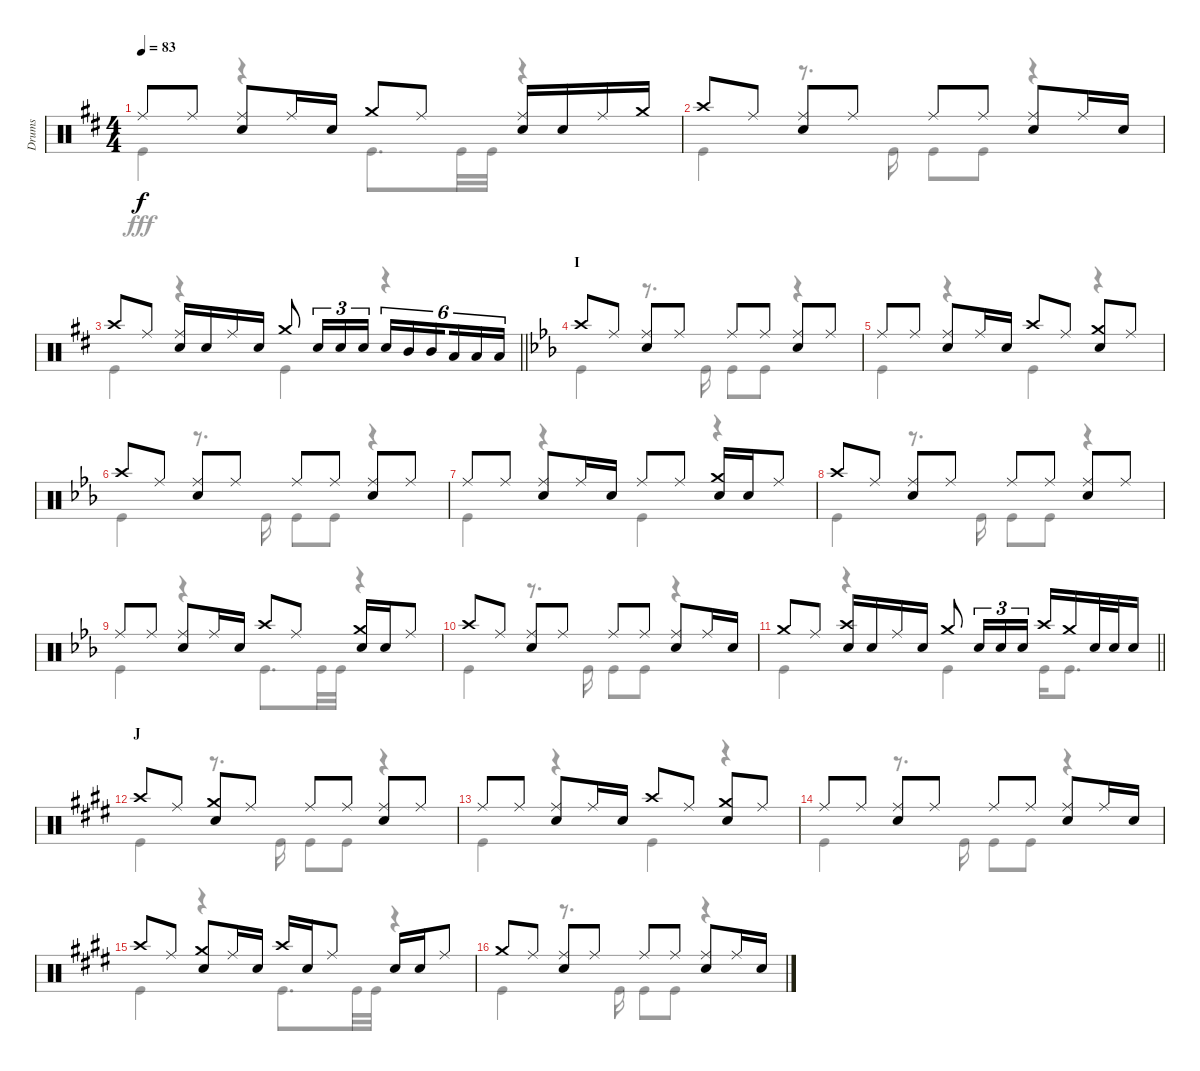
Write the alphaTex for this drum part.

\track ("Drums" "Drums") {instrument percussion}
\staff {score}
\articulation defaults
\voice
\ts (4 4)
\tempo 83
\clef neutral
\ks d "Ride (middle)".8{dy f} "Ride (middle)".8
("Ride (middle)" "Snare (hit) 2").8 "Ride (middle)".16 "Snare (hit) 2".16 "Crash medium (hit)".8 "Ride (middle)".8 ("Ride (middle)" "Snare (hit) 2").16 "Snare (hit) 2".16 "Ride (middle)".16 "Crash medium (hit)".16 |
"Crash high (hit)".8 "Ride (middle)".8 ("Ride (middle)" "Snare (hit) 2").8 "Ride (middle)".8 "Ride (middle)".8 "Ride (middle)".8 ("Ride (middle)" "Snare (hit) 2").8 "Ride (middle)".16 "Snare (hit) 2".16 |
\barLineRight lightlight "Crash high (hit)".8 "Ride (middle)".8
("Ride (middle)" "Snare (hit) 2").16 "Snare (hit) 2".16 "Ride (middle)".16 "Snare (hit) 2".16 "Crash medium (hit)".8 "Snare (hit) 2".16{tu (3 2)} "Snare (hit) 2".16{tu (3 2)} "Snare (hit) 2".16{tu (3 2)} "Snare (hit) 2".16{tu (6 4)} "Mid Tom (hit)".16{tu (6 4)} "Mid Tom (hit)".16{tu (6 4) beam splitsecondary} "Low Tom (hit)".16{tu (6 4)} "Low Tom (hit)".16{tu (6 4)} "Low Tom (hit)".16{tu (6 4)} |
\section ("" "I")
\ks eb "Crash high (hit)".8 "Ride (middle)".8
("Ride (middle)" "Snare (hit) 2").8 "Ride (middle)".8 "Ride (middle)".8 "Ride (middle)".8 ("Ride (middle)" "Snare (hit) 2").8 "Ride (middle)".8 |
"Ride (middle)".8 "Ride (middle)".8 ("Ride (middle)" "Snare (hit) 2").8 "Ride (middle)".16 "Snare (hit) 2".16 "Crash high (hit)".8 "Ride (middle)".8 ("Crash medium (hit)" "Snare (hit) 2").8 "Ride (middle)".8 |
"Crash high (hit)".8 "Ride (middle)".8 ("Ride (middle)" "Snare (hit) 2").8 "Ride (middle)".8 "Ride (middle)".8 "Ride (middle)".8 ("Ride (middle)" "Snare (hit) 2").8 "Ride (middle)".8 |
"Ride (middle)".8 "Ride (middle)".8 ("Ride (middle)" "Snare (hit) 2").8 "Ride (middle)".16 "Snare (hit) 2".16 "Ride (middle)".8 "Ride (middle)".8 ("Crash medium (hit)" "Snare (hit) 2").16 "Snare (hit) 2".16 "Ride (middle)".8 |
"Crash high (hit)".8 "Ride (middle)".8 ("Ride (middle)" "Snare (hit) 2").8 "Ride (middle)".8 "Ride (middle)".8 "Ride (middle)".8 ("Ride (middle)" "Snare (hit) 2").8 "Ride (middle)".8 |
"Ride (middle)".8 "Ride (middle)".8 ("Ride (middle)" "Snare (hit) 2").8 "Ride (middle)".16 "Snare (hit) 2".16 "Crash high (hit)".8 "Ride (middle)".8 ("Crash medium (hit)" "Snare (hit) 2").16 "Snare (hit) 2".16 "Ride (middle)".8 |
"Crash high (hit)".8 "Ride (middle)".8 ("Ride (middle)" "Snare (hit) 2").8 "Ride (middle)".8 "Ride (middle)".8 "Ride (middle)".8 ("Ride (middle)" "Snare (hit) 2").8 "Ride (middle)".16 "Snare (hit) 2".16 |
\barLineRight lightlight "Crash medium (hit)".8 "Ride (middle)".8
("Crash high (hit)" "Snare (hit) 2").16 "Snare (hit) 2".16 "Ride (middle)".16 "Snare (hit) 2".16 "Crash medium (hit)".8 "Snare (hit) 2".16{tu (3 2)} "Snare (hit) 2".16{tu (3 2)} "Snare (hit) 2".16{tu (3 2)} "Crash high (hit)".16 "Crash medium (hit)".16 "Snare (hit) 2".32 "Snare (hit) 2".32 "Snare (hit) 2".16 |
\section ("" "J")
\ks e "Crash high (hit)".8 "Ride (middle)".8
("Crash medium (hit)" "Snare (hit) 2").8 "Ride (middle)".8 "Ride (middle)".8 "Ride (middle)".8 ("Ride (middle)" "Snare (hit) 2").8 "Ride (middle)".8 |
"Ride (middle)".8 "Ride (middle)".8 ("Ride (middle)" "Snare (hit) 2").8 "Ride (middle)".16 "Snare (hit) 2".16 "Crash high (hit)".8 "Ride (middle)".8 ("Crash medium (hit)" "Snare (hit) 2").8 "Ride (middle)".8 |
"Ride (middle)".8 "Ride (middle)".8 ("Ride (middle)" "Snare (hit) 2").8 "Ride (middle)".8 "Ride (middle)".8 "Ride (middle)".8 ("Ride (middle)" "Snare (hit) 2").8 "Ride (middle)".16 "Snare (hit) 2".16 |
"Crash high (hit)".8 "Ride (middle)".8 ("Crash medium (hit)" "Snare (hit) 2").8 "Ride (middle)".16 "Snare (hit) 2".16 "Crash high (hit)".16 "Snare (hit) 2".16 "Ride (middle)".8 "Snare (hit) 2".16 "Snare (hit) 2".16 "Ride (middle)".8 |
"Crash medium (hit)".8 "Ride (middle)".8 ("Ride (middle)" "Snare (hit) 2").8 "Ride (middle)".8 "Ride (middle)".8 "Ride (middle)".8 ("Ride (middle)" "Snare (hit) 2").8 "Ride (middle)".16 "Snare (hit) 2".16
\voice
\clef neutral
\ottava regular
\simile none
\ks d "Kick (hit)".4{dy fff}
r.4 "Kick (hit)".8{d} "Kick (hit)".32 "Kick (hit)".32 r.4 |
"Kick (hit)".4 r.8{d} "Kick (hit)".16 "Kick (hit)".8 "Kick (hit)".8 r.4 |
\barLineRight lightlight "Kick (hit)".4
r.4 "Kick (hit)".4 r.4 |
\ks eb "Kick (hit)".4
r.8{d} "Kick (hit)".16 "Kick (hit)".8 "Kick (hit)".8 r.4 |
"Kick (hit)".4 r.4 "Kick (hit)".4 r.4 |
"Kick (hit)".4 r.8{d} "Kick (hit)".16 "Kick (hit)".8 "Kick (hit)".8 r.4 |
"Kick (hit)".4 r.4 "Kick (hit)".4 r.4 |
"Kick (hit)".4 r.8{d} "Kick (hit)".16 "Kick (hit)".8 "Kick (hit)".8 r.4 |
"Kick (hit)".4 r.4 "Kick (hit)".8{d} "Kick (hit)".32 "Kick (hit)".32 r.4 |
"Kick (hit)".4 r.8{d} "Kick (hit)".16 "Kick (hit)".8 "Kick (hit)".8 r.4 |
\barLineRight lightlight "Kick (hit)".4
r.4 "Kick (hit)".4 "Kick (hit)".16 "Kick (hit)".8{d} |
\ks e "Kick (hit)".4
r.8{d} "Kick (hit)".16 "Kick (hit)".8 "Kick (hit)".8 r.4 |
"Kick (hit)".4 r.4 "Kick (hit)".4 r.4 |
"Kick (hit)".4 r.8{d} "Kick (hit)".16 "Kick (hit)".8 "Kick (hit)".8 r.4 |
"Kick (hit)".4 r.4 "Kick (hit)".8{d} "Kick (hit)".32 "Kick (hit)".32 r.4 |
"Kick (hit)".4 r.8{d} "Kick (hit)".16 "Kick (hit)".8 "Kick (hit)".8 r.4
